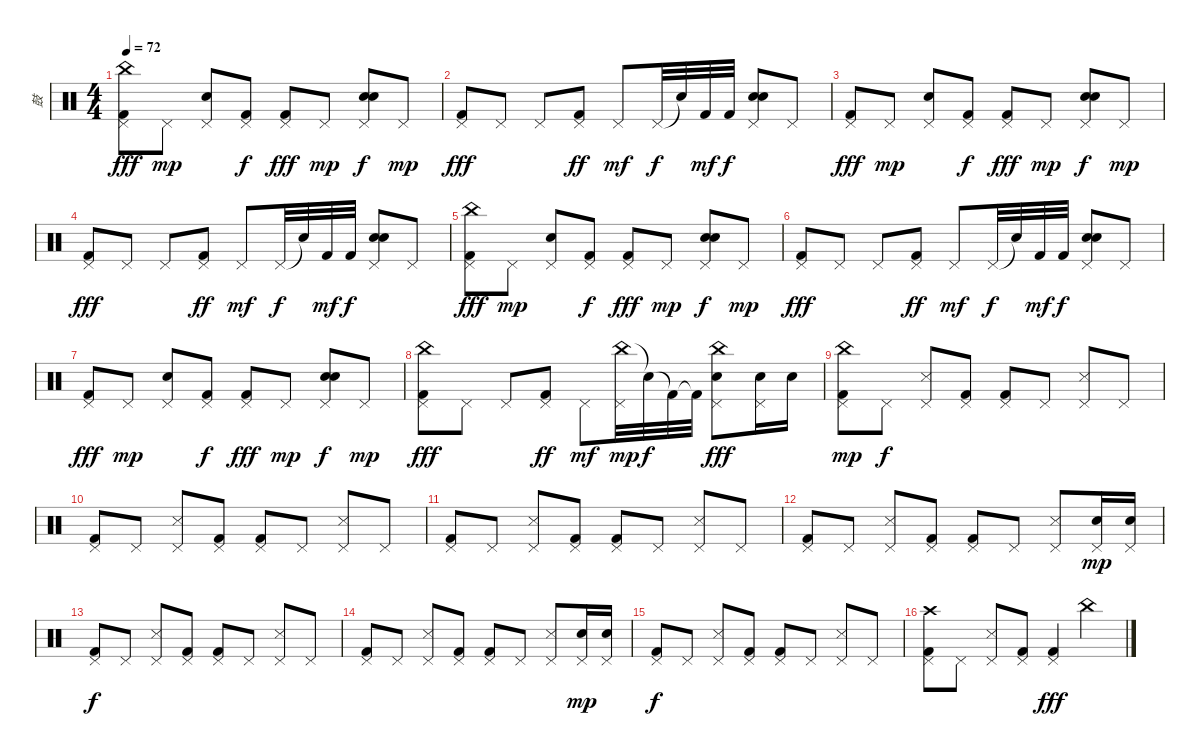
\track ("鼓" "鼓") {instrument percussion}
\staff {score}
\articulation defaults
\ts (4 4)
\tempo 72
\clef neutral
\ks c
("China (hit)" "Kick (hit) 2" "Pedal Hi-Hat (hit)").8{dy fff} "Pedal Hi-Hat (hit)".8{dy mp} ("Electric Snare (hit)" "Pedal Hi-Hat (hit)").8 ("Kick (hit) 2" "Pedal Hi-Hat (hit)").8{dy f} ("Kick (hit) 2" "Pedal Hi-Hat (hit)").8{dy fff} "Pedal Hi-Hat (hit)".8{dy mp} ("Hand Clap (hit)" "Electric Snare (hit)" "Pedal Hi-Hat (hit)").8{dy f} "Pedal Hi-Hat (hit)".8{dy mp} |
("Kick (hit) 2" "Pedal Hi-Hat (hit)").8{dy fff} "Pedal Hi-Hat (hit)".8 "Pedal Hi-Hat (hit)".8 ("Kick (hit) 2" "Pedal Hi-Hat (hit)").8{dy ff} "Pedal Hi-Hat (hit)".8{dy mf} "Pedal Hi-Hat (hit)".32{dy f} "Snare (hit)"{t}.32 "Kick (hit) 2".32{dy mf} "Kick (hit) 2".32{dy f} ("Hand Clap (hit)" "Electric Snare (hit)" "Pedal Hi-Hat (hit)").8 "Pedal Hi-Hat (hit)".8 |
("Kick (hit) 2" "Pedal Hi-Hat (hit)").8{dy fff} "Pedal Hi-Hat (hit)".8{dy mp} ("Electric Snare (hit)" "Pedal Hi-Hat (hit)").8 ("Kick (hit) 2" "Pedal Hi-Hat (hit)").8{dy f} ("Kick (hit) 2" "Pedal Hi-Hat (hit)").8{dy fff} "Pedal Hi-Hat (hit)".8{dy mp} ("Hand Clap (hit)" "Electric Snare (hit)" "Pedal Hi-Hat (hit)").8{dy f} "Pedal Hi-Hat (hit)".8{dy mp} |
("Kick (hit) 2" "Pedal Hi-Hat (hit)").8{dy fff} "Pedal Hi-Hat (hit)".8 "Pedal Hi-Hat (hit)".8 ("Kick (hit) 2" "Pedal Hi-Hat (hit)").8{dy ff} "Pedal Hi-Hat (hit)".8{dy mf} "Pedal Hi-Hat (hit)".32{dy f} "Snare (hit)"{t}.32 "Kick (hit) 2".32{dy mf} "Kick (hit) 2".32{dy f} ("Hand Clap (hit)" "Electric Snare (hit)" "Pedal Hi-Hat (hit)").8 "Pedal Hi-Hat (hit)".8 |
("China (hit)" "Kick (hit) 2" "Pedal Hi-Hat (hit)").8{dy fff} "Pedal Hi-Hat (hit)".8{dy mp} ("Electric Snare (hit)" "Pedal Hi-Hat (hit)").8 ("Kick (hit) 2" "Pedal Hi-Hat (hit)").8{dy f} ("Kick (hit) 2" "Pedal Hi-Hat (hit)").8{dy fff} "Pedal Hi-Hat (hit)".8{dy mp} ("Hand Clap (hit)" "Electric Snare (hit)" "Pedal Hi-Hat (hit)").8{dy f} "Pedal Hi-Hat (hit)".8{dy mp} |
("Kick (hit) 2" "Pedal Hi-Hat (hit)").8{dy fff} "Pedal Hi-Hat (hit)".8 "Pedal Hi-Hat (hit)".8 ("Kick (hit) 2" "Pedal Hi-Hat (hit)").8{dy ff} "Pedal Hi-Hat (hit)".8{dy mf} "Pedal Hi-Hat (hit)".32{dy f} "Snare (hit)"{t}.32 "Kick (hit) 2".32{dy mf} "Kick (hit) 2".32{dy f} ("Hand Clap (hit)" "Electric Snare (hit)" "Pedal Hi-Hat (hit)").8 "Pedal Hi-Hat (hit)".8 |
("Kick (hit) 2" "Pedal Hi-Hat (hit)").8{dy fff} "Pedal Hi-Hat (hit)".8{dy mp} ("Electric Snare (hit)" "Pedal Hi-Hat (hit)").8 ("Kick (hit) 2" "Pedal Hi-Hat (hit)").8{dy f} ("Kick (hit) 2" "Pedal Hi-Hat (hit)").8{dy fff} "Pedal Hi-Hat (hit)".8{dy mp} ("Hand Clap (hit)" "Electric Snare (hit)" "Pedal Hi-Hat (hit)").8{dy f} "Pedal Hi-Hat (hit)".8{dy mp} |
("China (hit)" "Kick (hit) 2" "Pedal Hi-Hat (hit)").8{dy fff} "Pedal Hi-Hat (hit)".8 "Pedal Hi-Hat (hit)".8 ("Kick (hit) 2" "Pedal Hi-Hat (hit)").8{dy ff} "Pedal Hi-Hat (hit)".8{dy mf} ("China (hit)" "Pedal Hi-Hat (hit)").32{dy mp} "Snare (hit)"{t}.32{dy f} "Kick (hit) 2"{t}.32 "Kick (hit) 2"{t}.32 ("China (hit)" "Electric Snare (hit)" "Pedal Hi-Hat (hit)").8{dy fff} ("Electric Snare (hit)" "Pedal Hi-Hat (hit)").16 "Electric Snare (hit)".16 |
("China (hit)" "Kick (hit) 2" "Pedal Hi-Hat (hit)").8{dy mp} "Pedal Hi-Hat (hit)".8{dy f} ("Snare (side stick) 3" "Pedal Hi-Hat (hit)").8 ("Kick (hit) 2" "Pedal Hi-Hat (hit)").8 ("Kick (hit) 2" "Pedal Hi-Hat (hit)").8 "Pedal Hi-Hat (hit)".8 ("Snare (side stick) 3" "Pedal Hi-Hat (hit)").8 "Pedal Hi-Hat (hit)".8 |
("Kick (hit) 2" "Pedal Hi-Hat (hit)").8 "Pedal Hi-Hat (hit)".8 ("Snare (side stick) 3" "Pedal Hi-Hat (hit)").8 ("Kick (hit) 2" "Pedal Hi-Hat (hit)").8 ("Kick (hit) 2" "Pedal Hi-Hat (hit)").8 "Pedal Hi-Hat (hit)".8 ("Snare (side stick) 3" "Pedal Hi-Hat (hit)").8 "Pedal Hi-Hat (hit)".8 |
("Kick (hit) 2" "Pedal Hi-Hat (hit)").8 "Pedal Hi-Hat (hit)".8 ("Snare (side stick) 3" "Pedal Hi-Hat (hit)").8 ("Kick (hit) 2" "Pedal Hi-Hat (hit)").8 ("Kick (hit) 2" "Pedal Hi-Hat (hit)").8 "Pedal Hi-Hat (hit)".8 ("Snare (side stick) 3" "Pedal Hi-Hat (hit)").8 "Pedal Hi-Hat (hit)".8 |
("Kick (hit) 2" "Pedal Hi-Hat (hit)").8 "Pedal Hi-Hat (hit)".8 ("Snare (side stick) 3" "Pedal Hi-Hat (hit)").8 ("Kick (hit) 2" "Pedal Hi-Hat (hit)").8 ("Kick (hit) 2" "Pedal Hi-Hat (hit)").8 "Pedal Hi-Hat (hit)".8 ("Snare (side stick) 3" "Pedal Hi-Hat (hit)").8 ("Electric Snare (hit)" "Pedal Hi-Hat (hit)").16{dy mp} ("Electric Snare (hit)" "Pedal Hi-Hat (hit)").16 |
("Kick (hit) 2" "Pedal Hi-Hat (hit)").8{dy f} "Pedal Hi-Hat (hit)".8 ("Snare (side stick) 3" "Pedal Hi-Hat (hit)").8 ("Kick (hit) 2" "Pedal Hi-Hat (hit)").8 ("Kick (hit) 2" "Pedal Hi-Hat (hit)").8 "Pedal Hi-Hat (hit)".8 ("Snare (side stick) 3" "Pedal Hi-Hat (hit)").8 "Pedal Hi-Hat (hit)".8 |
("Kick (hit) 2" "Pedal Hi-Hat (hit)").8 "Pedal Hi-Hat (hit)".8 ("Snare (side stick) 3" "Pedal Hi-Hat (hit)").8 ("Kick (hit) 2" "Pedal Hi-Hat (hit)").8 ("Kick (hit) 2" "Pedal Hi-Hat (hit)").8 "Pedal Hi-Hat (hit)".8 ("Snare (side stick) 3" "Pedal Hi-Hat (hit)").8 ("Electric Snare (hit)" "Pedal Hi-Hat (hit)").16{dy mp} ("Electric Snare (hit)" "Pedal Hi-Hat (hit)").16 |
("Kick (hit) 2" "Pedal Hi-Hat (hit)").8{dy f} "Pedal Hi-Hat (hit)".8 ("Snare (side stick) 3" "Pedal Hi-Hat (hit)").8 ("Kick (hit) 2" "Pedal Hi-Hat (hit)").8 ("Kick (hit) 2" "Pedal Hi-Hat (hit)").8 "Pedal Hi-Hat (hit)".8 ("Snare (side stick) 3" "Pedal Hi-Hat (hit)").8 "Pedal Hi-Hat (hit)".8 |
("Crash high (hit)" "Kick (hit) 2" "Pedal Hi-Hat (hit)").8 "Pedal Hi-Hat (hit)".8 ("Snare (side stick) 3" "Pedal Hi-Hat (hit)").8 ("Kick (hit) 2" "Pedal Hi-Hat (hit)").8 ("Kick (hit) 2" "Pedal Hi-Hat (hit)").4{dy fff} "China (hit)".4
